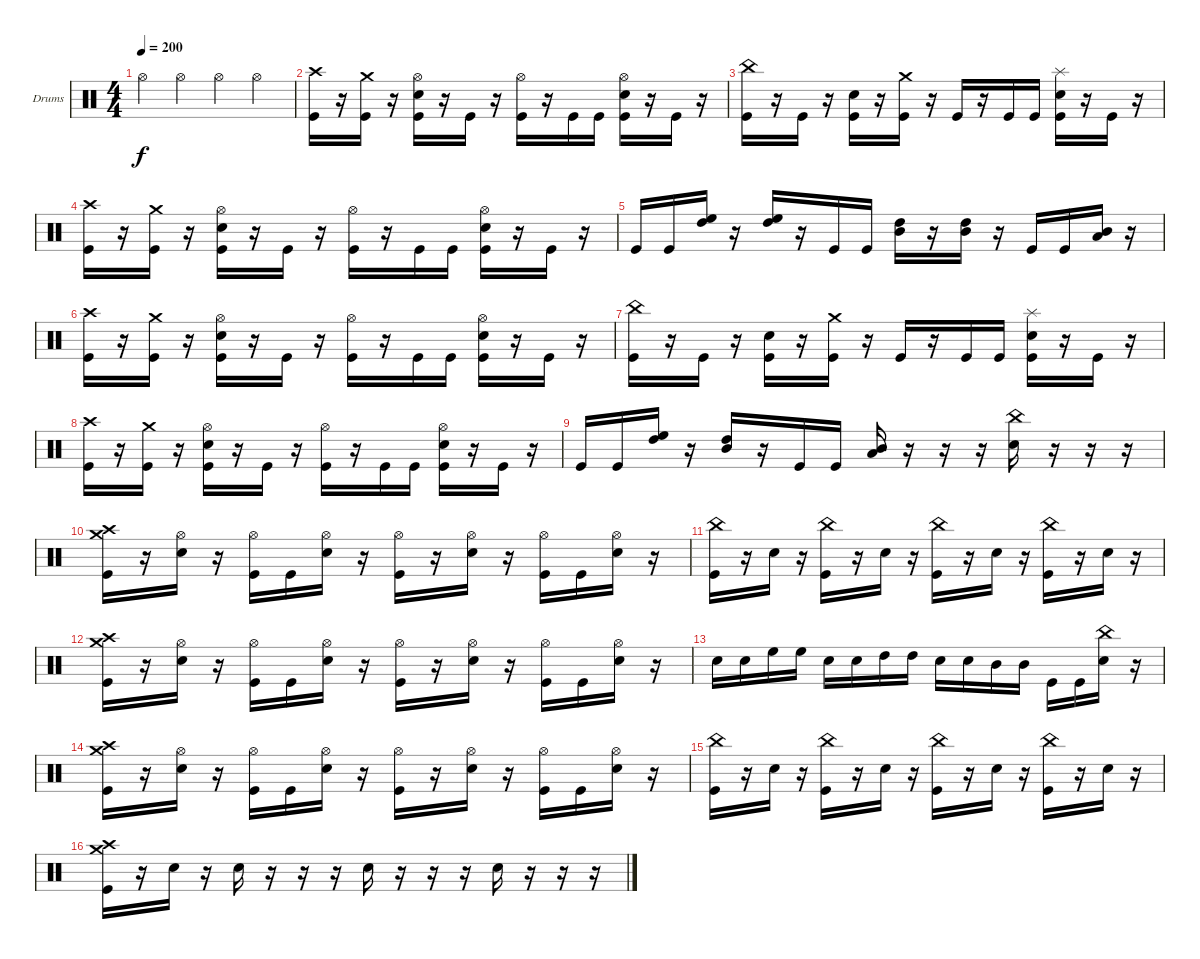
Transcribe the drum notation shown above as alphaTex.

\defaultSystemsLayout 4
\bracketExtendMode groupsimilarinstruments
\firstSystemTrackNameOrientation horizontal
\otherSystemsTrackNameOrientation horizontal
\track ("Drumkit" "Drums") {instrument percussion}
\staff {score}
\articulation defaults
\ts (4 4)
\tempo 200
\clef neutral
\ks c "Hi-Hat (open)".4{dy f} "Hi-Hat (open)".4 "Hi-Hat (open)".4 "Hi-Hat (open)".4
|
("Kick (hit)" "Crash high (hit)").16 r.16 ("Kick (hit)" "Crash medium (hit)").16 r.16 ("Kick (hit)" "Snare (hit) 2" "Hi-Hat (open)").16 r.16 "Kick (hit)".16 r.16 ("Kick (hit)" "Hi-Hat (open)").16 r.16 "Kick (hit)".16 "Kick (hit)".16 ("Kick (hit)" "Snare (hit) 2" "Hi-Hat (open)").16 r.16 "Kick (hit)".16 r.16 |
("Kick (hit)" "China (hit)").16 r.16 "Kick (hit)".16 r.16 ("Kick (hit)" "Snare (hit) 2").16 r.16 ("Kick (hit)" "Crash medium (hit)").16 r.16 "Kick (hit)".16 r.16 "Kick (hit)".16 "Kick (hit)".16 ("Kick (hit)" "Snare (hit) 2" "Splash (hit)").16 r.16 "Kick (hit)".16 r.16 |
("Kick (hit)" "Crash high (hit)").16 r.16 ("Kick (hit)" "Crash medium (hit)").16 r.16 ("Kick (hit)" "Snare (hit) 2" "Hi-Hat (open)").16 r.16 "Kick (hit)".16 r.16 ("Kick (hit)" "Hi-Hat (open)").16 r.16 "Kick (hit)".16 "Kick (hit)".16 ("Kick (hit)" "Snare (hit) 2" "Hi-Hat (open)").16 r.16 "Kick (hit)".16 r.16 |
"Kick (hit)".16 "Kick (hit)".16 ("High Tom (hit)" "High Floor Tom (hit)").16 r.16 ("High Tom (hit)" "High Floor Tom (hit)").16 r.16 "Kick (hit)".16 "Kick (hit)".16 ("Mid Tom (hit)" "High Tom (hit)").16 r.16 ("Mid Tom (hit)" "High Tom (hit)").16 r.16 "Kick (hit)".16 "Kick (hit)".16 ("Low Tom (hit)" "Mid Tom (hit)").16 r.16 |
("Kick (hit)" "Crash high (hit)").16 r.16 ("Kick (hit)" "Crash medium (hit)").16 r.16 ("Kick (hit)" "Snare (hit) 2" "Hi-Hat (open)").16 r.16 "Kick (hit)".16 r.16 ("Kick (hit)" "Hi-Hat (open)").16 r.16 "Kick (hit)".16 "Kick (hit)".16 ("Kick (hit)" "Snare (hit) 2" "Hi-Hat (open)").16 r.16 "Kick (hit)".16 r.16 |
("Kick (hit)" "China (hit)").16 r.16 "Kick (hit)".16 r.16 ("Kick (hit)" "Snare (hit) 2").16 r.16 ("Kick (hit)" "Crash medium (hit)").16 r.16 "Kick (hit)".16 r.16 "Kick (hit)".16 "Kick (hit)".16 ("Kick (hit)" "Snare (hit) 2" "Splash (hit)").16 r.16 "Kick (hit)".16 r.16 |
("Kick (hit)" "Crash high (hit)").16 r.16 ("Kick (hit)" "Crash medium (hit)").16 r.16 ("Kick (hit)" "Snare (hit) 2" "Hi-Hat (open)").16 r.16 "Kick (hit)".16 r.16 ("Kick (hit)" "Hi-Hat (open)").16 r.16 "Kick (hit)".16 "Kick (hit)".16 ("Kick (hit)" "Snare (hit) 2" "Hi-Hat (open)").16 r.16 "Kick (hit)".16 r.16 |
"Kick (hit)".16 "Kick (hit)".16 ("High Tom (hit)" "High Floor Tom (hit)").16 r.16 ("Mid Tom (hit)" "High Tom (hit)").16 r.16 "Kick (hit)".16 "Kick (hit)".16 ("Low Tom (hit)" "Mid Tom (hit)").16 r.16 r.16 r.16 ("Snare (hit) 2" "China (hit)").16 r.16 r.16 r.16 |
("Kick (hit)" "Crash medium (hit)" "Crash high (hit)").16 r.16 ("Snare (hit) 2" "Hi-Hat (open)").16 r.16 ("Kick (hit)" "Hi-Hat (open)").16 "Kick (hit)".16 ("Snare (hit) 2" "Hi-Hat (open)").16 r.16 ("Kick (hit)" "Hi-Hat (open)").16 r.16 ("Snare (hit) 2" "Hi-Hat (open)").16 r.16 ("Kick (hit)" "Hi-Hat (open)").16 "Kick (hit)".16 ("Snare (hit) 2" "Hi-Hat (open)").16 r.16 |
("Kick (hit)" "China (hit)").16 r.16 "Snare (hit) 2".16 r.16 ("Kick (hit)" "China (hit)").16 r.16 "Snare (hit) 2".16 r.16 ("Kick (hit)" "China (hit)").16 r.16 "Snare (hit) 2".16 r.16 ("Kick (hit)" "China (hit)").16 r.16 "Snare (hit) 2".16 r.16 |
("Kick (hit)" "Crash medium (hit)" "Crash high (hit)").16 r.16 ("Snare (hit) 2" "Hi-Hat (open)").16 r.16 ("Kick (hit)" "Hi-Hat (open)").16 "Kick (hit)".16 ("Snare (hit) 2" "Hi-Hat (open)").16 r.16 ("Kick (hit)" "Hi-Hat (open)").16 r.16 ("Snare (hit) 2" "Hi-Hat (open)").16 r.16 ("Kick (hit)" "Hi-Hat (open)").16 "Kick (hit)".16 ("Snare (hit) 2" "Hi-Hat (open)").16 r.16 |
"Snare (hit) 2".16 "Snare (hit) 2".16 "High Floor Tom (hit)".16 "High Floor Tom (hit)".16 "Snare (hit) 2".16 "Snare (hit) 2".16 "High Tom (hit)".16 "High Tom (hit)".16 "Snare (hit) 2".16 "Snare (hit) 2".16 "Mid Tom (hit)".16 "Mid Tom (hit)".16 "Kick (hit)".16 "Kick (hit)".16 ("Snare (hit) 2" "China (hit)").16 r.16 |
("Kick (hit)" "Crash medium (hit)" "Crash high (hit)").16 r.16 ("Snare (hit) 2" "Hi-Hat (open)").16 r.16 ("Kick (hit)" "Hi-Hat (open)").16 "Kick (hit)".16 ("Snare (hit) 2" "Hi-Hat (open)").16 r.16 ("Kick (hit)" "Hi-Hat (open)").16 r.16 ("Snare (hit) 2" "Hi-Hat (open)").16 r.16 ("Kick (hit)" "Hi-Hat (open)").16 "Kick (hit)".16 ("Snare (hit) 2" "Hi-Hat (open)").16 r.16 |
("Kick (hit)" "China (hit)").16 r.16 "Snare (hit) 2".16 r.16 ("Kick (hit)" "China (hit)").16 r.16 "Snare (hit) 2".16 r.16 ("Kick (hit)" "China (hit)").16 r.16 "Snare (hit) 2".16 r.16 ("Kick (hit)" "China (hit)").16 r.16 "Snare (hit) 2".16 r.16 |
("Kick (hit)" "Crash medium (hit)" "Crash high (hit)").16 r.16 "Snare (hit) 2".16 r.16 "Snare (hit) 2".16 r.16 r.16 r.16 "Snare (hit) 2".16 r.16 r.16 r.16 "Snare (hit) 2".16 r.16 r.16 r.16
